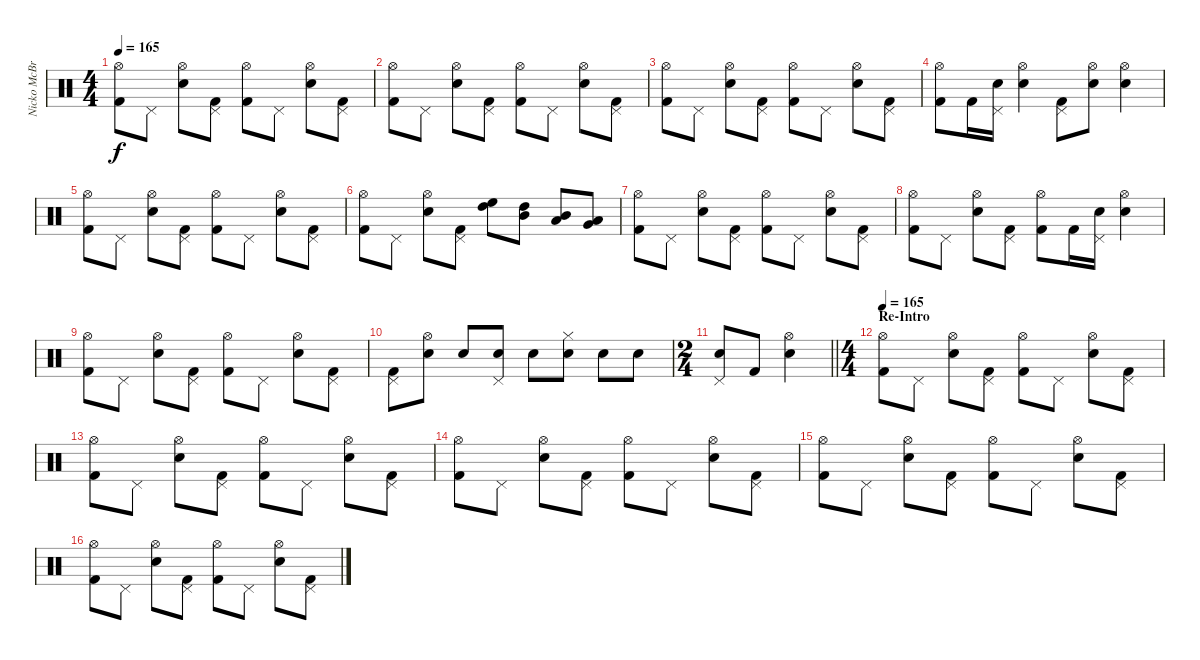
\track ("Nicko McBrain" "Nicko McBr") {instrument percussion}
\staff {score}
\articulation defaults
\ts (4 4)
\tempo 165
\clef neutral
\ks c
("Kick (hit) 2" "Hi-Hat (open)").8{dy f} "Pedal Hi-Hat (hit)".8 ("Snare (hit) 2" "Hi-Hat (open)").8 ("Kick (hit) 2" "Pedal Hi-Hat (hit)").8 ("Kick (hit) 2" "Hi-Hat (open)").8 "Pedal Hi-Hat (hit)".8 ("Snare (hit) 2" "Hi-Hat (open)").8 ("Kick (hit) 2" "Pedal Hi-Hat (hit)").8 |
("Kick (hit) 2" "Hi-Hat (open)").8 "Pedal Hi-Hat (hit)".8 ("Snare (hit) 2" "Hi-Hat (open)").8 ("Kick (hit) 2" "Pedal Hi-Hat (hit)").8 ("Kick (hit) 2" "Hi-Hat (open)").8 "Pedal Hi-Hat (hit)".8 ("Snare (hit) 2" "Hi-Hat (open)").8 ("Kick (hit) 2" "Pedal Hi-Hat (hit)").8 |
("Kick (hit) 2" "Hi-Hat (open)").8 "Pedal Hi-Hat (hit)".8 ("Snare (hit) 2" "Hi-Hat (open)").8 ("Kick (hit) 2" "Pedal Hi-Hat (hit)").8 ("Kick (hit) 2" "Hi-Hat (open)").8 "Pedal Hi-Hat (hit)".8 ("Snare (hit) 2" "Hi-Hat (open)").8 ("Kick (hit) 2" "Pedal Hi-Hat (hit)").8 |
("Kick (hit) 2" "Hi-Hat (open)").8 "Kick (hit) 2".16 ("Snare (hit) 2" "Pedal Hi-Hat (hit)").16 ("Snare (hit) 2" "Hi-Hat (open)").4 ("Kick (hit) 2" "Pedal Hi-Hat (hit)").8 ("Snare (hit) 2" "Hi-Hat (open)").8 ("Snare (hit) 2" "Hi-Hat (open)").4 |
("Kick (hit) 2" "Hi-Hat (open)").8 "Pedal Hi-Hat (hit)".8 ("Snare (hit) 2" "Hi-Hat (open)").8 ("Kick (hit) 2" "Pedal Hi-Hat (hit)").8 ("Kick (hit) 2" "Hi-Hat (open)").8 "Pedal Hi-Hat (hit)".8 ("Snare (hit) 2" "Hi-Hat (open)").8 ("Kick (hit) 2" "Pedal Hi-Hat (hit)").8 |
("Kick (hit) 2" "Hi-Hat (open)").8 "Pedal Hi-Hat (hit)".8 ("Snare (hit) 2" "Hi-Hat (open)").8 ("Kick (hit) 2" "Pedal Hi-Hat (hit)").8 ("High Tom (hit)" "High Floor Tom (hit)").8 ("Mid Tom (hit)" "High Tom (hit)").8 ("Low Tom (hit)" "Mid Tom (hit)").8 ("Very Low Tom (hit)" "Low Tom (hit)").8 |
("Kick (hit) 2" "Hi-Hat (open)").8 "Pedal Hi-Hat (hit)".8 ("Snare (hit) 2" "Hi-Hat (open)").8 ("Kick (hit) 2" "Pedal Hi-Hat (hit)").8 ("Kick (hit) 2" "Hi-Hat (open)").8 "Pedal Hi-Hat (hit)".8 ("Snare (hit) 2" "Hi-Hat (open)").8 ("Kick (hit) 2" "Pedal Hi-Hat (hit)").8 |
("Kick (hit) 2" "Hi-Hat (open)").8 "Pedal Hi-Hat (hit)".8 ("Snare (hit) 2" "Hi-Hat (open)").8 ("Kick (hit) 2" "Pedal Hi-Hat (hit)").8 ("Kick (hit) 2" "Hi-Hat (open)").8 "Kick (hit) 2".16 ("Snare (hit) 2" "Pedal Hi-Hat (hit)").16 ("Snare (hit) 2" "Hi-Hat (open)").4 |
("Kick (hit) 2" "Hi-Hat (open)").8 "Pedal Hi-Hat (hit)".8 ("Snare (hit) 2" "Hi-Hat (open)").8 ("Kick (hit) 2" "Pedal Hi-Hat (hit)").8 ("Kick (hit) 2" "Hi-Hat (open)").8 "Pedal Hi-Hat (hit)".8 ("Snare (hit) 2" "Hi-Hat (open)").8 ("Kick (hit) 2" "Pedal Hi-Hat (hit)").8 |
("Kick (hit) 2" "Pedal Hi-Hat (hit)").8 ("Snare (hit) 2" "Hi-Hat (open)").8 "Snare (hit) 2".8 ("Snare (hit) 2" "Pedal Hi-Hat (hit)").8 "Snare (hit) 2".8 ("Snare (hit) 2" "Hi-Hat (closed)").8 "Snare (hit) 2".8 "Snare (hit) 2".8 |
\ts (2 4)
\barLineRight lightlight
("Snare (hit) 2" "Pedal Hi-Hat (hit)").8 "Kick (hit) 2".8 ("Snare (hit) 2" "Hi-Hat (open)").4 |
\ts (4 4)
\section ("" "Re-Intro")
\tempo 165
("Kick (hit) 2" "Hi-Hat (open)").8 "Pedal Hi-Hat (hit)".8 ("Snare (hit) 2" "Hi-Hat (open)").8 ("Kick (hit) 2" "Pedal Hi-Hat (hit)").8 ("Kick (hit) 2" "Hi-Hat (open)").8 "Pedal Hi-Hat (hit)".8 ("Snare (hit) 2" "Hi-Hat (open)").8 ("Kick (hit) 2" "Pedal Hi-Hat (hit)").8 |
("Kick (hit) 2" "Hi-Hat (open)").8 "Pedal Hi-Hat (hit)".8 ("Snare (hit) 2" "Hi-Hat (open)").8 ("Kick (hit) 2" "Pedal Hi-Hat (hit)").8 ("Kick (hit) 2" "Hi-Hat (open)").8 "Pedal Hi-Hat (hit)".8 ("Snare (hit) 2" "Hi-Hat (open)").8 ("Kick (hit) 2" "Pedal Hi-Hat (hit)").8 |
("Kick (hit) 2" "Hi-Hat (open)").8 "Pedal Hi-Hat (hit)".8 ("Snare (hit) 2" "Hi-Hat (open)").8 ("Kick (hit) 2" "Pedal Hi-Hat (hit)").8 ("Kick (hit) 2" "Hi-Hat (open)").8 "Pedal Hi-Hat (hit)".8 ("Snare (hit) 2" "Hi-Hat (open)").8 ("Kick (hit) 2" "Pedal Hi-Hat (hit)").8 |
("Kick (hit) 2" "Hi-Hat (open)").8 "Pedal Hi-Hat (hit)".8 ("Snare (hit) 2" "Hi-Hat (open)").8 ("Kick (hit) 2" "Pedal Hi-Hat (hit)").8 ("Kick (hit) 2" "Hi-Hat (open)").8 "Pedal Hi-Hat (hit)".8 ("Snare (hit) 2" "Hi-Hat (open)").8 ("Kick (hit) 2" "Pedal Hi-Hat (hit)").8 |
("Kick (hit) 2" "Hi-Hat (open)").8 "Pedal Hi-Hat (hit)".8 ("Snare (hit) 2" "Hi-Hat (open)").8 ("Kick (hit) 2" "Pedal Hi-Hat (hit)").8 ("Kick (hit) 2" "Hi-Hat (open)").8 "Pedal Hi-Hat (hit)".8 ("Snare (hit) 2" "Hi-Hat (open)").8 ("Kick (hit) 2" "Pedal Hi-Hat (hit)").8
